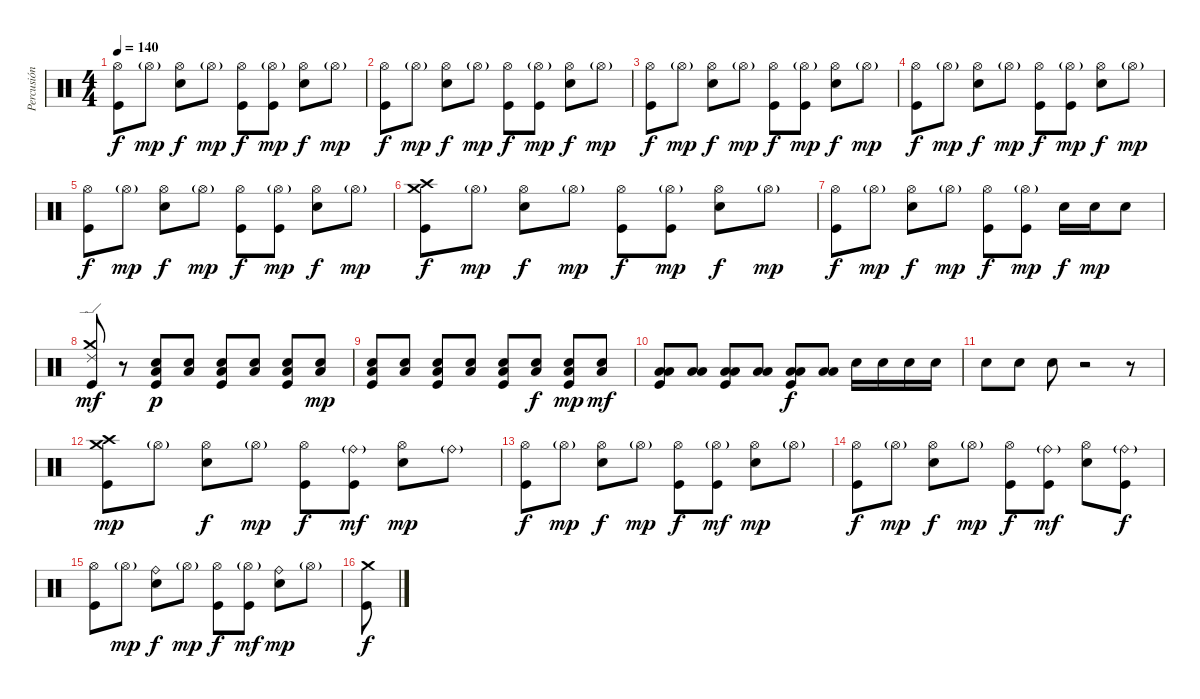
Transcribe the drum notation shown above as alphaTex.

\track ("Percusión" "Percusión") {instrument percussion}
\staff {score}
\articulation defaults
\ts (4 4)
\tempo 140
\clef neutral
\ks c
("Hi-Hat (open)" "Kick (hit)").8{dy f} "Hi-Hat (open)"{g}.8{dy mp} ("Hi-Hat (open)" "Electric Snare (hit)").8{dy f} "Hi-Hat (open)"{g}.8{dy mp} ("Hi-Hat (open)" "Kick (hit)").8{dy f} ("Hi-Hat (open)"{g} "Kick (hit)").8{dy mp} ("Hi-Hat (open)" "Electric Snare (hit)").8{dy f} "Hi-Hat (open)"{g}.8{dy mp} |
("Hi-Hat (open)" "Kick (hit)").8{dy f} "Hi-Hat (open)"{g}.8{dy mp} ("Hi-Hat (open)" "Electric Snare (hit)").8{dy f} "Hi-Hat (open)"{g}.8{dy mp} ("Hi-Hat (open)" "Kick (hit)").8{dy f} ("Hi-Hat (open)"{g} "Kick (hit)").8{dy mp} ("Hi-Hat (open)" "Electric Snare (hit)").8{dy f} "Hi-Hat (open)"{g}.8{dy mp} |
("Hi-Hat (open)" "Kick (hit)").8{dy f} "Hi-Hat (open)"{g}.8{dy mp} ("Hi-Hat (open)" "Electric Snare (hit)").8{dy f} "Hi-Hat (open)"{g}.8{dy mp} ("Hi-Hat (open)" "Kick (hit)").8{dy f} ("Hi-Hat (open)"{g} "Kick (hit)").8{dy mp} ("Hi-Hat (open)" "Electric Snare (hit)").8{dy f} "Hi-Hat (open)"{g}.8{dy mp} |
("Hi-Hat (open)" "Kick (hit)").8{dy f} "Hi-Hat (open)"{g}.8{dy mp} ("Hi-Hat (open)" "Electric Snare (hit)").8{dy f} "Hi-Hat (open)"{g}.8{dy mp} ("Hi-Hat (open)" "Kick (hit)").8{dy f} ("Hi-Hat (open)"{g} "Kick (hit)").8{dy mp} ("Hi-Hat (open)" "Electric Snare (hit)").8{dy f} "Hi-Hat (open)"{g}.8{dy mp} |
("Hi-Hat (open)" "Kick (hit)").8{dy f} "Hi-Hat (open)"{g}.8{dy mp} ("Hi-Hat (open)" "Electric Snare (hit)").8{dy f} "Hi-Hat (open)"{g}.8{dy mp} ("Hi-Hat (open)" "Kick (hit)").8{dy f} ("Hi-Hat (open)"{g} "Kick (hit)").8{dy mp} ("Hi-Hat (open)" "Electric Snare (hit)").8{dy f} "Hi-Hat (open)"{g}.8{dy mp} |
("Crash medium (hit)" "Kick (hit)" "Crash high (hit)").8{dy f} "Hi-Hat (open)"{g}.8{dy mp} ("Hi-Hat (open)" "Electric Snare (hit)").8{dy f} "Hi-Hat (open)"{g}.8{dy mp} ("Hi-Hat (open)" "Kick (hit)").8{dy f} ("Hi-Hat (open)"{g} "Kick (hit)").8{dy mp} ("Hi-Hat (open)" "Electric Snare (hit)").8{dy f} "Hi-Hat (open)"{g}.8{dy mp} |
("Hi-Hat (open)" "Kick (hit)").8{dy f} "Hi-Hat (open)"{g}.8{dy mp} ("Hi-Hat (open)" "Electric Snare (hit)").8{dy f} "Hi-Hat (open)"{g}.8{dy mp} ("Hi-Hat (open)" "Kick (hit)").8{dy f} ("Hi-Hat (open)"{g} "Kick (hit)").8{dy mp} "Electric Snare (hit)".16{dy f} "Electric Snare (hit)".16{dy mp} "Electric Snare (hit)".8 |
("Kick (hit)" "Crash medium (hit)" "Ride (edge) 2").8{dy mf} r.8 ("Kick (hit)" "Low Floor Tom (hit)" "Electric Snare (hit)").8{dy p} ("Low Floor Tom (hit)" "Electric Snare (hit)").8 ("Kick (hit)" "Low Floor Tom (hit)" "Electric Snare (hit)").8 ("Low Floor Tom (hit)" "Electric Snare (hit)").8 ("Kick (hit)" "Low Floor Tom (hit)" "Electric Snare (hit)").8 ("Low Floor Tom (hit)" "Electric Snare (hit)").8{dy mp} |
("Kick (hit)" "Low Floor Tom (hit)" "Electric Snare (hit)").8 ("Low Floor Tom (hit)" "Electric Snare (hit)").8 ("Kick (hit)" "Low Floor Tom (hit)" "Electric Snare (hit)").8 ("Low Floor Tom (hit)" "Electric Snare (hit)").8 ("Kick (hit)" "Low Floor Tom (hit)" "Electric Snare (hit)").8 ("Low Floor Tom (hit)" "Electric Snare (hit)").8{dy f} ("Kick (hit)" "Low Floor Tom (hit)" "Electric Snare (hit)").8{dy mp} ("Low Floor Tom (hit)" "Electric Snare (hit)").8{dy mf} |
("Kick (hit)" "Low Floor Tom (hit)" "Low Tom (hit)").8 ("Low Floor Tom (hit)" "Low Tom (hit)").8 ("Kick (hit)" "Low Floor Tom (hit)" "Low Tom (hit)").8 ("Low Floor Tom (hit)" "Low Tom (hit)").8 ("Kick (hit)" "Low Floor Tom (hit)" "Low Tom (hit)").8{dy f} ("Low Floor Tom (hit)" "Low Tom (hit)").8 "Electric Snare (hit)".16 "Electric Snare (hit)".16 "Electric Snare (hit)".16 "Electric Snare (hit)".16 |
"Electric Snare (hit)".8 "Electric Snare (hit)".8 "Electric Snare (hit)".8 r.2 r.8 |
("Crash high (hit)" "Kick (hit)" "Crash medium (hit)").8{dy mp} "Hi-Hat (open)"{g}.8 ("Hi-Hat (open)" "Electric Snare (hit)").8{dy f} "Hi-Hat (open)"{g}.8{dy mp} ("Hi-Hat (open)" "Kick (hit)").8{dy f} ("Ride (bell)"{g} "Kick (hit)").8{dy mf} ("Hi-Hat (open)" "Electric Snare (hit)").8{dy mp} "Ride (bell)"{g}.8 |
("Hi-Hat (open)" "Kick (hit)").8{dy f} "Hi-Hat (open)"{g}.8{dy mp} ("Hi-Hat (open)" "Electric Snare (hit)").8{dy f} "Hi-Hat (open)"{g}.8{dy mp} ("Hi-Hat (open)" "Kick (hit)").8{dy f} ("Hi-Hat (open)"{g} "Kick (hit)").8{dy mf} ("Hi-Hat (open)" "Electric Snare (hit)").8{dy mp} "Hi-Hat (open)"{g}.8 |
("Hi-Hat (open)" "Kick (hit)").8{dy f} "Hi-Hat (open)"{g}.8{dy mp} ("Hi-Hat (open)" "Electric Snare (hit)").8{dy f} "Hi-Hat (open)"{g}.8{dy mp} ("Hi-Hat (open)" "Kick (hit)").8{dy f} ("Ride (bell)"{g} "Kick (hit)").8{dy mf} ("Hi-Hat (open)" "Electric Snare (hit)").8 ("Ride (bell)"{g} "Kick (hit)").8{dy f} |
("Hi-Hat (open)" "Kick (hit)").8 "Hi-Hat (open)"{g}.8{dy mp} ("Ride (bell)" "Electric Snare (hit)").8{dy f} "Hi-Hat (open)"{g}.8{dy mp} ("Hi-Hat (open)" "Kick (hit)").8{dy f} ("Hi-Hat (open)"{g} "Kick (hit)").8{dy mf} ("Ride (bell)" "Electric Snare (hit)").8{dy mp} "Hi-Hat (open)"{g}.8 |
("Crash medium (hit)" "Kick (hit)").8{dy f}
